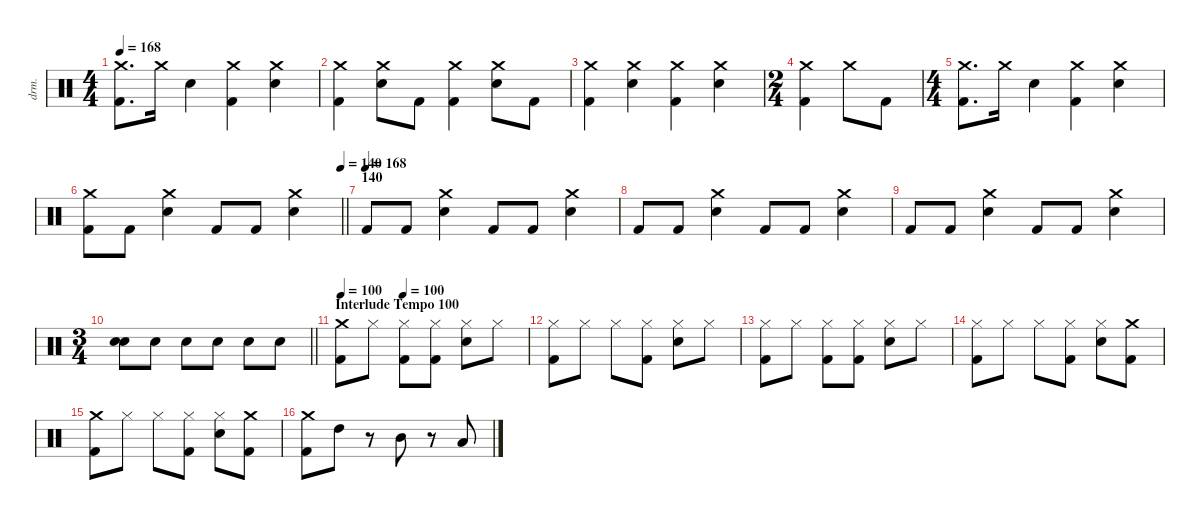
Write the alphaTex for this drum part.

\defaultSystemsLayout 4
\hideDynamics
\bracketExtendMode nobrackets
\otherSystemsTrackNameOrientation horizontal
\track ("Drums" "drm.") {instrument percussion}
\staff {score}
\articulation defaults
\ts (4 4)
\beaming (8 2 2 2 2)
\tempo 168
\clef neutral
\ks c
("Kick (hit) 2" "Crash medium (hit)").8{d dy fff} "Crash medium (hit)".16 "Snare (hit) 2".4 ("Kick (hit) 2" "Crash medium (hit)").4 ("Snare (hit) 2" "Crash medium (hit)").4 |
("Kick (hit) 2" "Crash medium (hit)").4 ("Snare (hit) 2" "Crash medium (hit)").8 "Kick (hit) 2".8 ("Kick (hit) 2" "Crash medium (hit)").4 ("Snare (hit) 2" "Crash medium (hit)").8 "Kick (hit) 2".8 |
("Kick (hit) 2" "Crash medium (hit)").4 ("Snare (hit) 2" "Crash medium (hit)").4 ("Kick (hit) 2" "Crash medium (hit)").4 ("Snare (hit) 2" "Crash medium (hit)").4 |
\ts (2 4)
\beaming (8 2 2)
("Kick (hit) 2" "Crash medium (hit)").4 "Crash medium (hit)".8 "Kick (hit) 2".8 |
\ts (4 4)
\beaming (8 2 2 2 2)
("Kick (hit) 2" "Crash medium (hit)").8{d} "Crash medium (hit)".16 "Snare (hit) 2".4 ("Kick (hit) 2" "Crash medium (hit)").4 ("Snare (hit) 2" "Crash medium (hit)").4 |
\tempo (140 1)
\barLineRight lightlight
("Kick (hit) 2" "Crash medium (hit)").8 "Kick (hit) 2".8 ("Snare (hit) 2" "Crash medium (hit)").4 "Kick (hit) 2".8 "Kick (hit) 2".8 ("Crash medium (hit)" "Snare (hit) 2").4 |
\section ("" "140")
\tempo (168)
"Kick (hit) 2".8 "Kick (hit) 2".8 ("Snare (hit) 2" "Crash medium (hit)").4 "Kick (hit) 2".8 "Kick (hit) 2".8 ("Crash medium (hit)" "Snare (hit) 2").4 |
"Kick (hit) 2".8 "Kick (hit) 2".8 ("Snare (hit) 2" "Crash medium (hit)").4 "Kick (hit) 2".8 "Kick (hit) 2".8 ("Crash medium (hit)" "Snare (hit) 2").4 |
"Kick (hit) 2".8 "Kick (hit) 2".8 ("Snare (hit) 2" "Crash medium (hit)").4 "Kick (hit) 2".8 "Kick (hit) 2".8 ("Crash medium (hit)" "Snare (hit) 2").4 |
\ts (3 4)
\beaming (8 2 2 2)
\barLineRight lightlight
("Snare (hit) 2" "Snare (hit) 2").8{dy f} "Snare (hit) 2".8{dy fff} "Snare (hit) 2".8 "Snare (hit) 2".8 "Snare (hit) 2".8 "Snare (hit) 2".8 |
\section ("" "Interlude Tempo 100")
\tempo 100
\tempo (100 0.333333)
("Crash medium (hit)" "Kick (hit) 2").8 "Hi-Hat (closed)".8 ("Kick (hit) 2" "Hi-Hat (closed)").8 ("Kick (hit) 2" "Hi-Hat (closed)").8 ("Snare (hit) 2" "Hi-Hat (closed)").8 "Hi-Hat (closed)".8 |
("Hi-Hat (closed)" "Kick (hit) 2").8 "Hi-Hat (closed)".8 "Hi-Hat (closed)".8 ("Kick (hit) 2" "Hi-Hat (closed)").8 ("Hi-Hat (closed)" "Snare (hit) 2").8 "Hi-Hat (closed)".8 |
("Hi-Hat (closed)" "Kick (hit) 2").8 "Hi-Hat (closed)".8 ("Kick (hit) 2" "Hi-Hat (closed)").8 ("Kick (hit) 2" "Hi-Hat (closed)").8 ("Hi-Hat (closed)" "Snare (hit) 2").8 "Hi-Hat (closed)".8 |
("Hi-Hat (closed)" "Kick (hit) 2").8 "Hi-Hat (closed)".8 "Hi-Hat (closed)".8 ("Kick (hit) 2" "Hi-Hat (closed)").8 ("Hi-Hat (closed)" "Snare (hit) 2").8 ("Crash medium (hit)" "Kick (hit) 2").8 |
("Kick (hit) 2" "Crash medium (hit)").8 "Hi-Hat (closed)".8 "Hi-Hat (closed)".8 ("Kick (hit) 2" "Hi-Hat (closed)").8 ("Snare (hit) 2" "Hi-Hat (closed)").8 ("Kick (hit) 2" "Crash medium (hit)").8 |
("Crash medium (hit)" "Kick (hit) 2").8 "High Tom (hit)".8 r.8 "Mid Tom (hit)".8 r.8 "Low Tom (hit)".8
